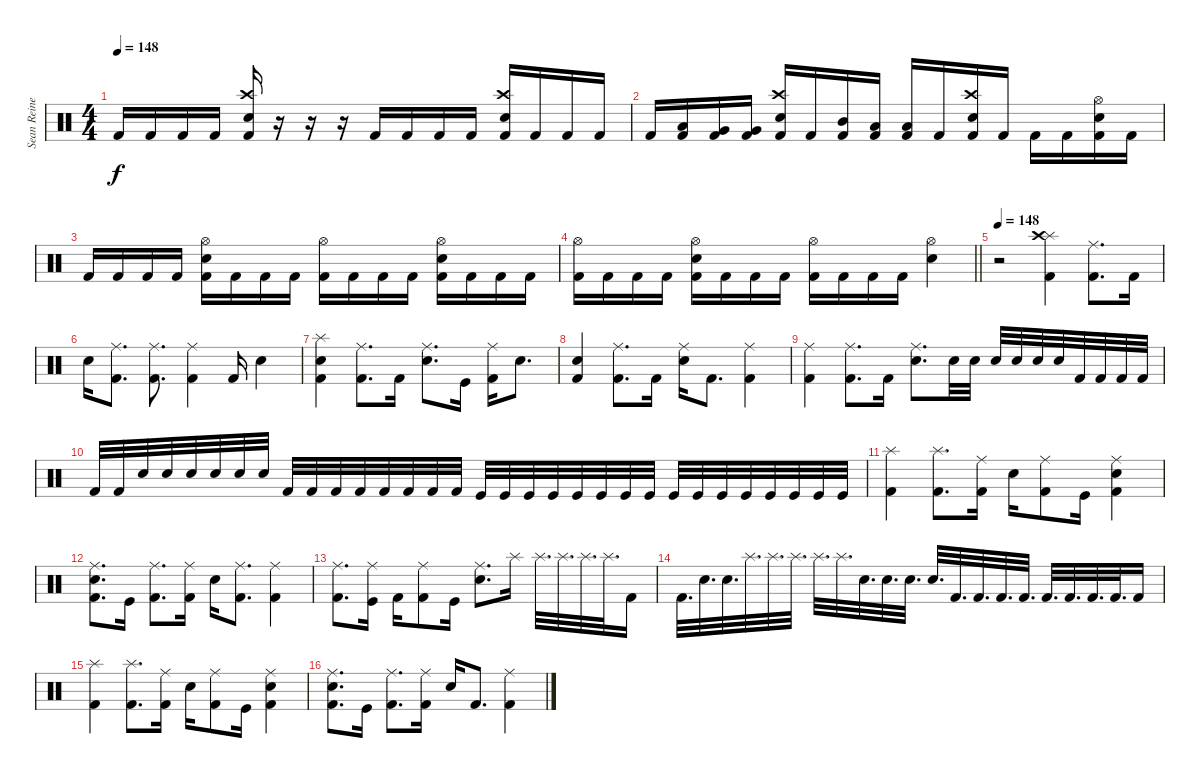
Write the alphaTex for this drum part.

\track ("Sean Reinert" "Sean Reine") {instrument percussion}
\staff {score}
\articulation defaults
\ts (4 4)
\tempo 148
\clef neutral
\ks c "Kick (hit) 2".16{dy f} "Kick (hit) 2".16 "Kick (hit) 2".16 "Kick (hit) 2".16
("Crash high (hit)" "Electric Snare (hit)" "Kick (hit) 2").16 r.16 r.16 r.16 "Kick (hit) 2".16 "Kick (hit) 2".16 "Kick (hit) 2".16 "Kick (hit) 2".16 ("Crash high (hit)" "Electric Snare (hit)" "Kick (hit) 2").16 "Kick (hit) 2".16 "Kick (hit) 2".16 "Kick (hit) 2".16 |
"Kick (hit) 2".16 ("Low Tom (hit)" "Kick (hit) 2").16 ("Very Low Tom (hit)" "Kick (hit) 2").16 ("Very Low Tom (hit)" "Kick (hit) 2").16 ("Crash high (hit)" "Electric Snare (hit)" "Kick (hit) 2").16 "Kick (hit) 2".16 ("Mid Tom (hit)" "Kick (hit) 2").16 ("Low Tom (hit)" "Kick (hit) 2").16 ("Low Tom (hit)" "Kick (hit) 2").16 "Kick (hit) 2".16 ("Crash high (hit)" "Electric Snare (hit)" "Kick (hit) 2").16 "Kick (hit) 2".16 "Kick (hit) 2".16 "Kick (hit) 2".16 ("Hi-Hat (open)" "Electric Snare (hit)" "Kick (hit) 2").16 "Kick (hit) 2".16 |
"Kick (hit) 2".16 "Kick (hit) 2".16 "Kick (hit) 2".16 "Kick (hit) 2".16 ("Hi-Hat (open)" "Electric Snare (hit)" "Kick (hit) 2").16 "Kick (hit) 2".16 "Kick (hit) 2".16 "Kick (hit) 2".16 ("Hi-Hat (open)" "Kick (hit) 2").16 "Kick (hit) 2".16 "Kick (hit) 2".16 "Kick (hit) 2".16 ("Hi-Hat (open)" "Electric Snare (hit)" "Kick (hit) 2").16 "Kick (hit) 2".16 "Kick (hit) 2".16 "Kick (hit) 2".16 |
\barLineRight lightlight
("Hi-Hat (open)" "Kick (hit) 2").16 "Kick (hit) 2".16 "Kick (hit) 2".16 "Kick (hit) 2".16 ("Hi-Hat (open)" "Electric Snare (hit)" "Kick (hit) 2").16 "Kick (hit) 2".16 "Kick (hit) 2".16 "Kick (hit) 2".16 ("Hi-Hat (open)" "Kick (hit) 2").16 "Kick (hit) 2".16 "Kick (hit) 2".16 "Kick (hit) 2".16 ("Hi-Hat (open)" "Electric Snare (hit)").4 |
\tempo 148
r.2 ("Splash (hit)" "Crash high (hit)" "Kick (hit) 2").4 ("Ride (middle)" "Kick (hit) 2").8{d} "Kick (hit) 2".16 |
"Electric Snare (hit)".16 ("Ride (middle)" "Kick (hit) 2").8{d} ("Ride (middle)" "Kick (hit) 2").8{d} ("Ride (middle)" "Kick (hit) 2").4 "Kick (hit) 2".16 "Electric Snare (hit)".4 |
("Splash (hit)" "Electric Snare (hit)" "Kick (hit) 2").4 ("Ride (middle)" "Kick (hit) 2").8{d} "Kick (hit) 2".16 ("Ride (middle)" "Electric Snare (hit)").8{d} "Kick (hit)".16 ("Ride (middle)" "Kick (hit) 2").16 "Electric Snare (hit)".8{d} |
("Electric Snare (hit)" "Kick (hit) 2").4 ("Ride (middle)" "Kick (hit) 2").8{d} "Kick (hit) 2".16 ("Ride (middle)" "Electric Snare (hit)").16 "Kick (hit) 2".8{d} ("Ride (middle)" "Kick (hit) 2").4 |
("Ride (middle)" "Kick (hit) 2").4 ("Ride (middle)" "Kick (hit) 2").8{d} "Kick (hit) 2".16 ("Ride (middle)" "Electric Snare (hit)").8{d} "Electric Snare (hit)".32 "Electric Snare (hit)".32 "Electric Snare (hit)".32 "Electric Snare (hit)".32 "Electric Snare (hit)".32 "Electric Snare (hit)".32 "Kick (hit) 2".32 "Kick (hit) 2".32 "Kick (hit) 2".32 "Kick (hit) 2".32 |
"Kick (hit) 2".32 "Kick (hit) 2".32 "Electric Snare (hit)".32 "Electric Snare (hit)".32 "Electric Snare (hit)".32 "Electric Snare (hit)".32 "Electric Snare (hit)".32 "Electric Snare (hit)".32 "Kick (hit) 2".32 "Kick (hit) 2".32 "Kick (hit) 2".32 "Kick (hit) 2".32 "Kick (hit) 2".32 "Kick (hit) 2".32 "Kick (hit) 2".32 "Kick (hit) 2".32 "Kick (hit)".32 "Kick (hit)".32 "Kick (hit)".32 "Kick (hit)".32 "Kick (hit)".32 "Kick (hit)".32 "Kick (hit)".32 "Kick (hit)".32 "Kick (hit)".32 "Kick (hit)".32 "Kick (hit)".32 "Kick (hit)".32 "Kick (hit)".32 "Kick (hit)".32 "Kick (hit)".32 "Kick (hit)".32 |
("Splash (hit)" "Kick (hit) 2").4 ("Splash (hit)" "Kick (hit) 2").8{d} ("Ride (middle)" "Kick (hit) 2").16 "Electric Snare (hit)".16 ("Ride (middle)" "Kick (hit) 2").8 "Kick (hit)".16 ("Ride (middle)" "Electric Snare (hit)" "Kick (hit) 2").4 |
("Ride (middle)" "Electric Snare (hit)" "Kick (hit) 2").8{d} "Kick (hit)".16 ("Ride (middle)" "Kick (hit) 2").8{d} ("Ride (middle)" "Kick (hit) 2").16 "Electric Snare (hit)".16 ("Ride (middle)" "Kick (hit) 2").8{d} ("Ride (middle)" "Kick (hit) 2").4 |
("Ride (middle)" "Kick (hit) 2").8{d} ("Ride (middle)" "Kick (hit)").16 "Kick (hit) 2".16 ("Ride (middle)" "Kick (hit) 2").8 "Kick (hit)".16 ("Ride (middle)" "Electric Snare (hit)").8{d} "Splash (hit)".16 "Splash (hit)".32{d} "Splash (hit)".32{d} "Splash (hit)".32{d} "Splash (hit)".32{d} "Kick (hit) 2".16 |
"Kick (hit) 2".32{d} "Electric Snare (hit)".32{d} "Electric Snare (hit)".32{d} "Splash (hit)".32{d} "Splash (hit)".32{d} "Splash (hit)".32{d} "Splash (hit)".32{d} "Splash (hit)".32{d} "Electric Snare (hit)".32{d} "Electric Snare (hit)".32{d} "Electric Snare (hit)".32{d} "Electric Snare (hit)".32{d} "Kick (hit) 2".32{d} "Kick (hit) 2".32{d} "Kick (hit) 2".32{d} "Kick (hit) 2".32{d} "Kick (hit) 2".32{d} "Kick (hit) 2".32{d} "Kick (hit) 2".32{d} "Kick (hit) 2".32{d} "Kick (hit) 2".16 |
("Splash (hit)" "Kick (hit) 2").4 ("Splash (hit)" "Kick (hit) 2").8{d} ("Ride (middle)" "Kick (hit) 2").16 "Electric Snare (hit)".16 ("Ride (middle)" "Kick (hit) 2").8 "Kick (hit)".16 ("Ride (middle)" "Electric Snare (hit)" "Kick (hit) 2").4 |
("Ride (middle)" "Electric Snare (hit)" "Kick (hit) 2").8{d} "Kick (hit)".16 ("Ride (middle)" "Kick (hit) 2").8{d} ("Ride (middle)" "Kick (hit) 2").16 "Electric Snare (hit)".16 "Kick (hit) 2".8{d} ("Ride (middle)" "Kick (hit) 2").4
